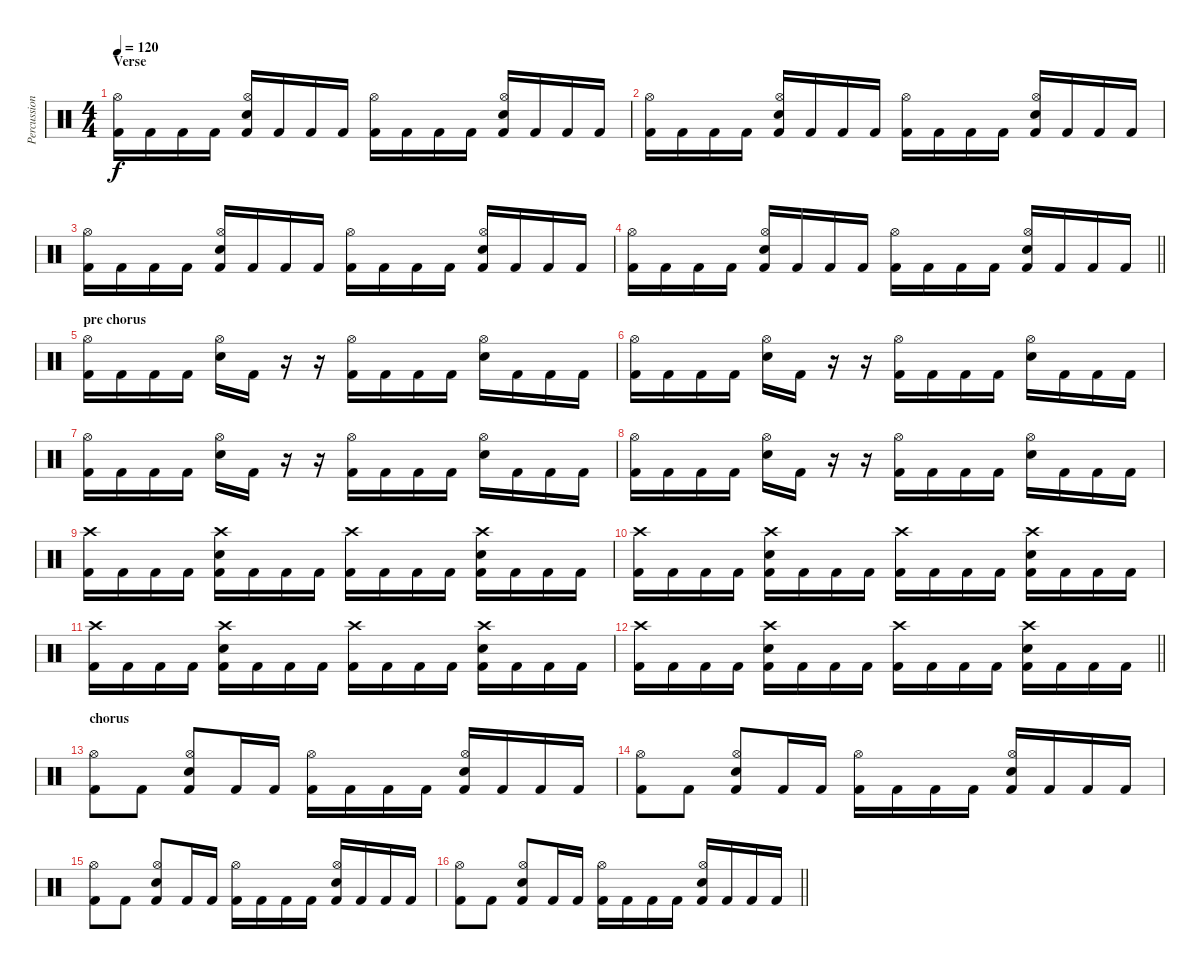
\track ("Percussion" "Percussion") {instrument percussion}
\staff {score}
\articulation defaults
\ts (4 4)
\section ("" "Verse")
\tempo 120
\clef neutral
\ks c
("Kick (hit) 2" "Hi-Hat (open)").16{dy f} "Kick (hit) 2".16 "Kick (hit) 2".16 "Kick (hit) 2".16 ("Kick (hit) 2" "Hi-Hat (open)" "Electric Snare (hit)").16 "Kick (hit) 2".16 "Kick (hit) 2".16 "Kick (hit) 2".16 ("Kick (hit) 2" "Hi-Hat (open)").16 "Kick (hit) 2".16 "Kick (hit) 2".16 "Kick (hit) 2".16 ("Kick (hit) 2" "Hi-Hat (open)" "Electric Snare (hit)").16 "Kick (hit) 2".16 "Kick (hit) 2".16 "Kick (hit) 2".16 |
("Kick (hit) 2" "Hi-Hat (open)").16 "Kick (hit) 2".16 "Kick (hit) 2".16 "Kick (hit) 2".16 ("Kick (hit) 2" "Hi-Hat (open)" "Electric Snare (hit)").16 "Kick (hit) 2".16 "Kick (hit) 2".16 "Kick (hit) 2".16 ("Kick (hit) 2" "Hi-Hat (open)").16 "Kick (hit) 2".16 "Kick (hit) 2".16 "Kick (hit) 2".16 ("Kick (hit) 2" "Hi-Hat (open)" "Electric Snare (hit)").16 "Kick (hit) 2".16 "Kick (hit) 2".16 "Kick (hit) 2".16 |
("Kick (hit) 2" "Hi-Hat (open)").16 "Kick (hit) 2".16 "Kick (hit) 2".16 "Kick (hit) 2".16 ("Kick (hit) 2" "Hi-Hat (open)" "Electric Snare (hit)").16 "Kick (hit) 2".16 "Kick (hit) 2".16 "Kick (hit) 2".16 ("Kick (hit) 2" "Hi-Hat (open)").16 "Kick (hit) 2".16 "Kick (hit) 2".16 "Kick (hit) 2".16 ("Kick (hit) 2" "Hi-Hat (open)" "Electric Snare (hit)").16 "Kick (hit) 2".16 "Kick (hit) 2".16 "Kick (hit) 2".16 |
\barLineRight lightlight
("Kick (hit) 2" "Hi-Hat (open)").16 "Kick (hit) 2".16 "Kick (hit) 2".16 "Kick (hit) 2".16 ("Kick (hit) 2" "Hi-Hat (open)" "Electric Snare (hit)").16 "Kick (hit) 2".16 "Kick (hit) 2".16 "Kick (hit) 2".16 ("Kick (hit) 2" "Hi-Hat (open)").16 "Kick (hit) 2".16 "Kick (hit) 2".16 "Kick (hit) 2".16 ("Kick (hit) 2" "Hi-Hat (open)" "Electric Snare (hit)").16 "Kick (hit) 2".16 "Kick (hit) 2".16 "Kick (hit) 2".16 |
\section ("" "pre chorus")
("Kick (hit) 2" "Hi-Hat (open)").16 "Kick (hit) 2".16 "Kick (hit) 2".16 "Kick (hit) 2".16 ("Electric Snare (hit)" "Hi-Hat (open)").16 "Kick (hit) 2".16 r.16 r.16 ("Kick (hit) 2" "Hi-Hat (open)").16 "Kick (hit) 2".16 "Kick (hit) 2".16 "Kick (hit) 2".16 ("Electric Snare (hit)" "Hi-Hat (open)").16 "Kick (hit) 2".16 "Kick (hit) 2".16 "Kick (hit) 2".16 |
("Kick (hit) 2" "Hi-Hat (open)").16 "Kick (hit) 2".16 "Kick (hit) 2".16 "Kick (hit) 2".16 ("Electric Snare (hit)" "Hi-Hat (open)").16 "Kick (hit) 2".16 r.16 r.16 ("Kick (hit) 2" "Hi-Hat (open)").16 "Kick (hit) 2".16 "Kick (hit) 2".16 "Kick (hit) 2".16 ("Electric Snare (hit)" "Hi-Hat (open)").16 "Kick (hit) 2".16 "Kick (hit) 2".16 "Kick (hit) 2".16 |
("Kick (hit) 2" "Hi-Hat (open)").16 "Kick (hit) 2".16 "Kick (hit) 2".16 "Kick (hit) 2".16 ("Electric Snare (hit)" "Hi-Hat (open)").16 "Kick (hit) 2".16 r.16 r.16 ("Kick (hit) 2" "Hi-Hat (open)").16 "Kick (hit) 2".16 "Kick (hit) 2".16 "Kick (hit) 2".16 ("Electric Snare (hit)" "Hi-Hat (open)").16 "Kick (hit) 2".16 "Kick (hit) 2".16 "Kick (hit) 2".16 |
("Kick (hit) 2" "Hi-Hat (open)").16 "Kick (hit) 2".16 "Kick (hit) 2".16 "Kick (hit) 2".16 ("Electric Snare (hit)" "Hi-Hat (open)").16 "Kick (hit) 2".16 r.16 r.16 ("Kick (hit) 2" "Hi-Hat (open)").16 "Kick (hit) 2".16 "Kick (hit) 2".16 "Kick (hit) 2".16 ("Electric Snare (hit)" "Hi-Hat (open)").16 "Kick (hit) 2".16 "Kick (hit) 2".16 "Kick (hit) 2".16 |
("Kick (hit) 2" "Crash high (hit)").16 "Kick (hit) 2".16 "Kick (hit) 2".16 "Kick (hit) 2".16 ("Kick (hit) 2" "Crash high (hit)" "Electric Snare (hit)").16 "Kick (hit) 2".16 "Kick (hit) 2".16 "Kick (hit) 2".16 ("Kick (hit) 2" "Crash high (hit)").16 "Kick (hit) 2".16 "Kick (hit) 2".16 "Kick (hit) 2".16 ("Kick (hit) 2" "Crash high (hit)" "Electric Snare (hit)").16 "Kick (hit) 2".16 "Kick (hit) 2".16 "Kick (hit) 2".16 |
("Kick (hit) 2" "Crash high (hit)").16 "Kick (hit) 2".16 "Kick (hit) 2".16 "Kick (hit) 2".16 ("Kick (hit) 2" "Crash high (hit)" "Electric Snare (hit)").16 "Kick (hit) 2".16 "Kick (hit) 2".16 "Kick (hit) 2".16 ("Kick (hit) 2" "Crash high (hit)").16 "Kick (hit) 2".16 "Kick (hit) 2".16 "Kick (hit) 2".16 ("Kick (hit) 2" "Crash high (hit)" "Electric Snare (hit)").16 "Kick (hit) 2".16 "Kick (hit) 2".16 "Kick (hit) 2".16 |
("Kick (hit) 2" "Crash high (hit)").16 "Kick (hit) 2".16 "Kick (hit) 2".16 "Kick (hit) 2".16 ("Kick (hit) 2" "Crash high (hit)" "Electric Snare (hit)").16 "Kick (hit) 2".16 "Kick (hit) 2".16 "Kick (hit) 2".16 ("Kick (hit) 2" "Crash high (hit)").16 "Kick (hit) 2".16 "Kick (hit) 2".16 "Kick (hit) 2".16 ("Kick (hit) 2" "Crash high (hit)" "Electric Snare (hit)").16 "Kick (hit) 2".16 "Kick (hit) 2".16 "Kick (hit) 2".16 |
\barLineRight lightlight
("Kick (hit) 2" "Crash high (hit)").16 "Kick (hit) 2".16 "Kick (hit) 2".16 "Kick (hit) 2".16 ("Kick (hit) 2" "Crash high (hit)" "Electric Snare (hit)").16 "Kick (hit) 2".16 "Kick (hit) 2".16 "Kick (hit) 2".16 ("Kick (hit) 2" "Crash high (hit)").16 "Kick (hit) 2".16 "Kick (hit) 2".16 "Kick (hit) 2".16 ("Kick (hit) 2" "Crash high (hit)" "Electric Snare (hit)").16 "Kick (hit) 2".16 "Kick (hit) 2".16 "Kick (hit) 2".16 |
\section ("" "chorus")
("Kick (hit) 2" "Hi-Hat (open)").8 "Kick (hit) 2".8 ("Kick (hit) 2" "Hi-Hat (open)" "Electric Snare (hit)").8 "Kick (hit) 2".16 "Kick (hit) 2".16 ("Kick (hit) 2" "Hi-Hat (open)").16 "Kick (hit) 2".16 "Kick (hit) 2".16 "Kick (hit) 2".16 ("Kick (hit) 2" "Hi-Hat (open)" "Electric Snare (hit)").16 "Kick (hit) 2".16 "Kick (hit) 2".16 "Kick (hit) 2".16 |
("Kick (hit) 2" "Hi-Hat (open)").8 "Kick (hit) 2".8 ("Kick (hit) 2" "Hi-Hat (open)" "Electric Snare (hit)").8 "Kick (hit) 2".16 "Kick (hit) 2".16 ("Kick (hit) 2" "Hi-Hat (open)").16 "Kick (hit) 2".16 "Kick (hit) 2".16 "Kick (hit) 2".16 ("Kick (hit) 2" "Hi-Hat (open)" "Electric Snare (hit)").16 "Kick (hit) 2".16 "Kick (hit) 2".16 "Kick (hit) 2".16 |
("Kick (hit) 2" "Hi-Hat (open)").8 "Kick (hit) 2".8 ("Kick (hit) 2" "Hi-Hat (open)" "Electric Snare (hit)").8 "Kick (hit) 2".16 "Kick (hit) 2".16 ("Kick (hit) 2" "Hi-Hat (open)").16 "Kick (hit) 2".16 "Kick (hit) 2".16 "Kick (hit) 2".16 ("Kick (hit) 2" "Hi-Hat (open)" "Electric Snare (hit)").16 "Kick (hit) 2".16 "Kick (hit) 2".16 "Kick (hit) 2".16 |
\barLineRight lightlight
("Kick (hit) 2" "Hi-Hat (open)").8 "Kick (hit) 2".8 ("Kick (hit) 2" "Hi-Hat (open)" "Electric Snare (hit)").8 "Kick (hit) 2".16 "Kick (hit) 2".16 ("Kick (hit) 2" "Hi-Hat (open)").16 "Kick (hit) 2".16 "Kick (hit) 2".16 "Kick (hit) 2".16 ("Kick (hit) 2" "Hi-Hat (open)" "Electric Snare (hit)").16 "Kick (hit) 2".16 "Kick (hit) 2".16 "Kick (hit) 2".16
